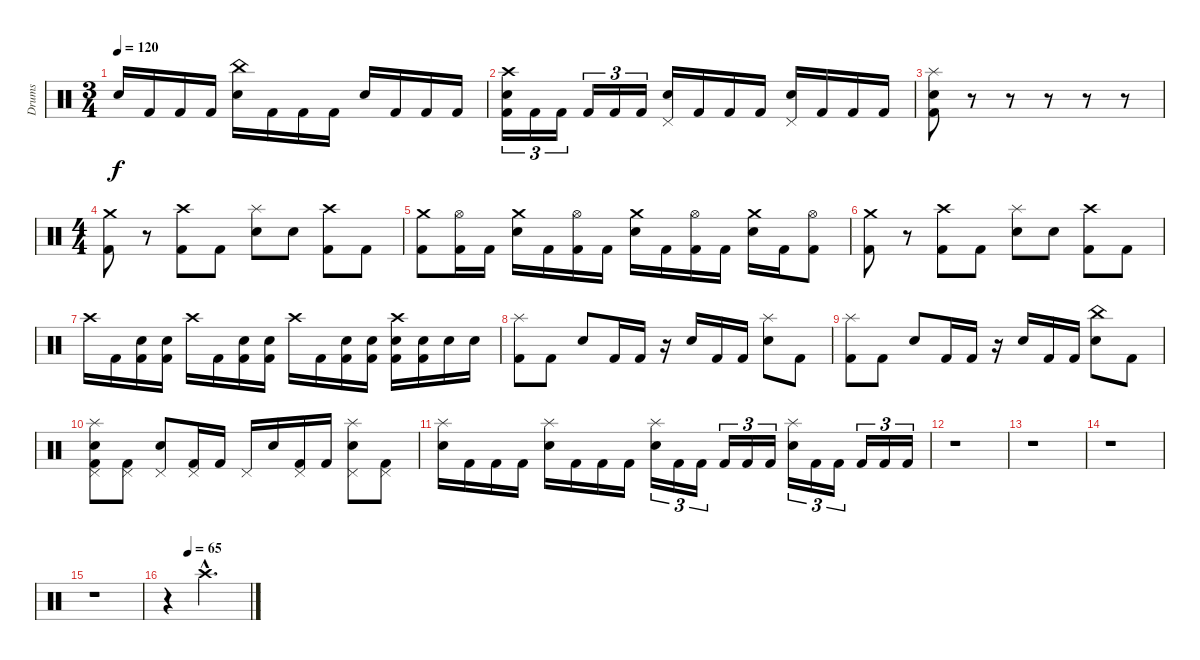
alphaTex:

\track ("Drums" "Drums") {instrument percussion}
\staff {score}
\articulation defaults
\ts (3 4)
\tempo 120
\clef neutral
\ks c "Electric Snare (hit)".16{dy f} "Kick (hit) 2".16 "Kick (hit) 2".16 "Kick (hit) 2".16
("China (hit)" "Electric Snare (hit)").16 "Kick (hit) 2".16 "Kick (hit) 2".16 "Kick (hit) 2".16 "Electric Snare (hit)".16 "Kick (hit) 2".16 "Kick (hit) 2".16 "Kick (hit) 2".16 |
("Crash high (hit)" "Electric Snare (hit)" "Kick (hit) 2").16{tu (3 2)} "Kick (hit) 2".16{tu (3 2)} "Kick (hit) 2".16{tu (3 2)} "Kick (hit) 2".16{tu (3 2)} "Kick (hit) 2".16{tu (3 2)} "Kick (hit) 2".16{tu (3 2)} ("Pedal Hi-Hat (hit)" "Electric Snare (hit)").16 "Kick (hit) 2".16 "Kick (hit) 2".16 "Kick (hit) 2".16 ("Pedal Hi-Hat (hit)" "Electric Snare (hit)").16 "Kick (hit) 2".16 "Kick (hit) 2".16 "Kick (hit) 2".16 |
("Splash (hit)" "Electric Snare (hit)" "Kick (hit) 2").8 r.8 r.8 r.8 r.8 r.8 |
\ts (4 4)
("Crash medium (hit)" "Kick (hit) 2").8 r.8 ("Crash high (hit)" "Kick (hit) 2").8 "Kick (hit) 2".8 ("Splash (hit)" "Electric Snare (hit)").8 "Electric Snare (hit)".8 ("Crash high (hit)" "Kick (hit) 2").8 "Kick (hit) 2".8 |
("Crash medium (hit)" "Kick (hit) 2").8 ("Hi-Hat (open)" "Kick (hit) 2").16 "Kick (hit) 2".16 ("Crash medium (hit)" "Electric Snare (hit)").16 "Kick (hit) 2".16 ("Hi-Hat (open)" "Kick (hit) 2").16 "Kick (hit) 2".16 ("Crash medium (hit)" "Electric Snare (hit)").16 "Kick (hit) 2".16 ("Hi-Hat (open)" "Kick (hit) 2").16 "Kick (hit) 2".16 ("Crash medium (hit)" "Electric Snare (hit)").16 "Kick (hit) 2".16 ("Hi-Hat (open)" "Kick (hit) 2").8 |
("Crash medium (hit)" "Kick (hit) 2").8 r.8 ("Crash high (hit)" "Kick (hit) 2").8 "Kick (hit) 2".8 ("Splash (hit)" "Electric Snare (hit)").8 "Electric Snare (hit)".8 ("Crash high (hit)" "Kick (hit) 2").8 "Kick (hit) 2".8 |
"Crash high (hit)".16 "Kick (hit) 2".16 ("Electric Snare (hit)" "Kick (hit) 2").16 ("Electric Snare (hit)" "Kick (hit) 2").16 "Crash high (hit)".16 "Kick (hit) 2".16 ("Electric Snare (hit)" "Kick (hit) 2").16 ("Electric Snare (hit)" "Kick (hit) 2").16 "Crash high (hit)".16 "Kick (hit) 2".16 ("Electric Snare (hit)" "Kick (hit) 2").16 ("Electric Snare (hit)" "Kick (hit) 2").16 ("Crash high (hit)" "Electric Snare (hit)" "Kick (hit) 2").16 ("Electric Snare (hit)" "Kick (hit) 2").16 "Electric Snare (hit)".16 "Electric Snare (hit)".16 |
("Splash (hit)" "Kick (hit) 2").8 "Kick (hit) 2".8 "Electric Snare (hit)".8 "Kick (hit) 2".16 "Kick (hit) 2".16 r.16 "Electric Snare (hit)".16 "Kick (hit) 2".16 "Kick (hit) 2".16 ("Splash (hit)" "Electric Snare (hit)").8 "Kick (hit) 2".8 |
("Splash (hit)" "Kick (hit) 2").8 "Kick (hit) 2".8 "Electric Snare (hit)".8 "Kick (hit) 2".16 "Kick (hit) 2".16 r.16 "Electric Snare (hit)".16 "Kick (hit) 2".16 "Kick (hit) 2".16 ("China (hit)" "Electric Snare (hit)").8 "Kick (hit) 2".8 |
("Splash (hit)" "Pedal Hi-Hat (hit)" "Electric Snare (hit)" "Kick (hit) 2").8 ("Pedal Hi-Hat (hit)" "Kick (hit) 2").8 ("Pedal Hi-Hat (hit)" "Electric Snare (hit)").8 ("Pedal Hi-Hat (hit)" "Kick (hit) 2").16 "Kick (hit) 2".16 "Pedal Hi-Hat (hit)".16 "Electric Snare (hit)".16 ("Pedal Hi-Hat (hit)" "Kick (hit) 2").16 "Kick (hit) 2".16 ("Splash (hit)" "Pedal Hi-Hat (hit)" "Electric Snare (hit)").8 ("Pedal Hi-Hat (hit)" "Kick (hit) 2").8 |
("Splash (hit)" "Electric Snare (hit)").16 "Kick (hit) 2".16 "Kick (hit) 2".16 "Kick (hit) 2".16 ("Splash (hit)" "Electric Snare (hit)").16 "Kick (hit) 2".16 "Kick (hit) 2".16 "Kick (hit) 2".16 ("Splash (hit)" "Electric Snare (hit)").16{tu (3 2)} "Kick (hit) 2".16{tu (3 2)} "Kick (hit) 2".16{tu (3 2)} "Kick (hit) 2".16{tu (3 2)} "Kick (hit) 2".16{tu (3 2)} "Kick (hit) 2".16{tu (3 2)} ("Splash (hit)" "Electric Snare (hit)").16{tu (3 2)} "Kick (hit) 2".16{tu (3 2)} "Kick (hit) 2".16{tu (3 2)} "Kick (hit) 2".16{tu (3 2)} "Kick (hit) 2".16{tu (3 2)} "Kick (hit) 2".16{tu (3 2)} |
r.1 |
r.1 |
r.1 |
r.1 |
\tempo (65 0.25)
r.4 "Crash high (hit)"{hac}.2{d}
